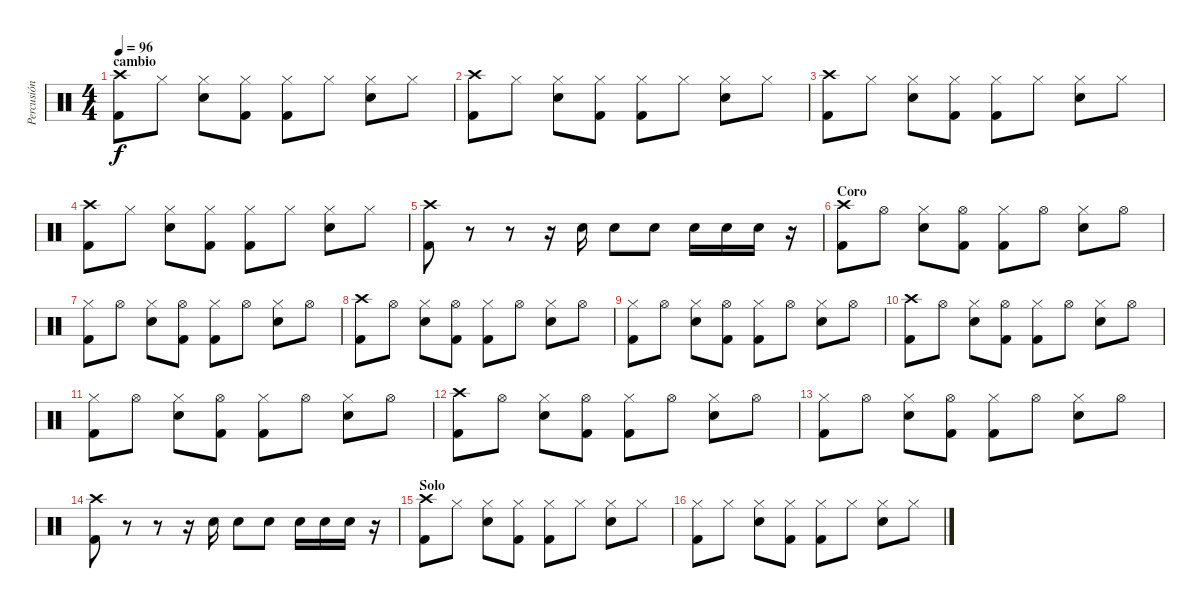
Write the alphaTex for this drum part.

\track ("Percusión" "Percusión") {instrument percussion}
\staff {score}
\articulation defaults
\ts (4 4)
\section ("" "cambio")
\tempo 96
\clef neutral
\ks c
("Kick (hit) 2" "Crash high (hit)").8{dy f} "Hi-Hat (closed)".8 ("Snare (hit) 2" "Hi-Hat (closed)").8 ("Kick (hit) 2" "Hi-Hat (closed)").8 ("Kick (hit) 2" "Hi-Hat (closed)").8 "Hi-Hat (closed)".8 ("Snare (hit) 2" "Hi-Hat (closed)").8 "Hi-Hat (closed)".8 |
("Kick (hit) 2" "Crash high (hit)").8 "Hi-Hat (closed)".8 ("Snare (hit) 2" "Hi-Hat (closed)").8 ("Kick (hit) 2" "Hi-Hat (closed)").8 ("Kick (hit) 2" "Hi-Hat (closed)").8 "Hi-Hat (closed)".8 ("Snare (hit) 2" "Hi-Hat (closed)").8 "Hi-Hat (closed)".8 |
("Kick (hit) 2" "Crash high (hit)").8 "Hi-Hat (closed)".8 ("Snare (hit) 2" "Hi-Hat (closed)").8 ("Kick (hit) 2" "Hi-Hat (closed)").8 ("Kick (hit) 2" "Hi-Hat (closed)").8 "Hi-Hat (closed)".8 ("Snare (hit) 2" "Hi-Hat (closed)").8 "Hi-Hat (closed)".8 |
("Kick (hit) 2" "Crash high (hit)").8 "Hi-Hat (closed)".8 ("Snare (hit) 2" "Hi-Hat (closed)").8 ("Kick (hit) 2" "Hi-Hat (closed)").8 ("Kick (hit) 2" "Hi-Hat (closed)").8 "Hi-Hat (closed)".8 ("Snare (hit) 2" "Hi-Hat (closed)").8 "Hi-Hat (closed)".8 |
("Kick (hit) 2" "Crash high (hit)").8 r.8 r.8 r.16 "Snare (hit) 2".16 "Snare (hit) 2".8 "Snare (hit) 2".8 "Snare (hit) 2".16 "Snare (hit) 2".16 "Snare (hit) 2".16 r.16 |
\section ("" "Coro")
("Kick (hit) 2" "Crash high (hit)").8 "Hi-Hat (open)".8 ("Snare (hit) 2" "Hi-Hat (closed)").8 ("Kick (hit) 2" "Hi-Hat (open)").8 ("Kick (hit) 2" "Hi-Hat (closed)").8 "Hi-Hat (open)".8 ("Snare (hit) 2" "Hi-Hat (closed)").8 "Hi-Hat (open)".8 |
("Kick (hit) 2" "Hi-Hat (closed)").8 "Hi-Hat (open)".8 ("Snare (hit) 2" "Hi-Hat (closed)").8 ("Kick (hit) 2" "Hi-Hat (open)").8 ("Kick (hit) 2" "Hi-Hat (closed)").8 "Hi-Hat (open)".8 ("Snare (hit) 2" "Hi-Hat (closed)").8 "Hi-Hat (open)".8 |
("Kick (hit) 2" "Crash high (hit)").8 "Hi-Hat (open)".8 ("Snare (hit) 2" "Hi-Hat (closed)").8 ("Kick (hit) 2" "Hi-Hat (open)").8 ("Kick (hit) 2" "Hi-Hat (closed)").8 "Hi-Hat (open)".8 ("Snare (hit) 2" "Hi-Hat (closed)").8 "Hi-Hat (open)".8 |
("Kick (hit) 2" "Hi-Hat (closed)").8 "Hi-Hat (open)".8 ("Snare (hit) 2" "Hi-Hat (closed)").8 ("Kick (hit) 2" "Hi-Hat (open)").8 ("Kick (hit) 2" "Hi-Hat (closed)").8 "Hi-Hat (open)".8 ("Snare (hit) 2" "Hi-Hat (closed)").8 "Hi-Hat (open)".8 |
("Kick (hit) 2" "Crash high (hit)").8 "Hi-Hat (open)".8 ("Snare (hit) 2" "Hi-Hat (closed)").8 ("Kick (hit) 2" "Hi-Hat (open)").8 ("Kick (hit) 2" "Hi-Hat (closed)").8 "Hi-Hat (open)".8 ("Snare (hit) 2" "Hi-Hat (closed)").8 "Hi-Hat (open)".8 |
("Kick (hit) 2" "Hi-Hat (closed)").8 "Hi-Hat (open)".8 ("Snare (hit) 2" "Hi-Hat (closed)").8 ("Kick (hit) 2" "Hi-Hat (open)").8 ("Kick (hit) 2" "Hi-Hat (closed)").8 "Hi-Hat (open)".8 ("Snare (hit) 2" "Hi-Hat (closed)").8 "Hi-Hat (open)".8 |
("Kick (hit) 2" "Crash high (hit)").8 "Hi-Hat (open)".8 ("Snare (hit) 2" "Hi-Hat (closed)").8 ("Kick (hit) 2" "Hi-Hat (open)").8 ("Kick (hit) 2" "Hi-Hat (closed)").8 "Hi-Hat (open)".8 ("Snare (hit) 2" "Hi-Hat (closed)").8 "Hi-Hat (open)".8 |
("Kick (hit) 2" "Hi-Hat (closed)").8 "Hi-Hat (open)".8 ("Snare (hit) 2" "Hi-Hat (closed)").8 ("Kick (hit) 2" "Hi-Hat (open)").8 ("Kick (hit) 2" "Hi-Hat (closed)").8 "Hi-Hat (open)".8 ("Snare (hit) 2" "Hi-Hat (closed)").8 "Hi-Hat (open)".8 |
("Kick (hit) 2" "Crash high (hit)").8 r.8 r.8 r.16 "Snare (hit) 2".16 "Snare (hit) 2".8 "Snare (hit) 2".8 "Snare (hit) 2".16 "Snare (hit) 2".16 "Snare (hit) 2".16 r.16 |
\section ("" "Solo")
("Kick (hit) 2" "Crash high (hit)").8 "Hi-Hat (closed)".8 ("Snare (hit) 2" "Hi-Hat (closed)").8 ("Kick (hit) 2" "Hi-Hat (closed)").8 ("Kick (hit) 2" "Hi-Hat (closed)").8 "Hi-Hat (closed)".8 ("Snare (hit) 2" "Hi-Hat (closed)").8 "Hi-Hat (closed)".8 |
("Kick (hit) 2" "Hi-Hat (closed)").8 "Hi-Hat (closed)".8 ("Snare (hit) 2" "Hi-Hat (closed)").8 ("Kick (hit) 2" "Hi-Hat (closed)").8 ("Kick (hit) 2" "Hi-Hat (closed)").8 "Hi-Hat (closed)".8 ("Snare (hit) 2" "Hi-Hat (closed)").8 "Hi-Hat (closed)".8
